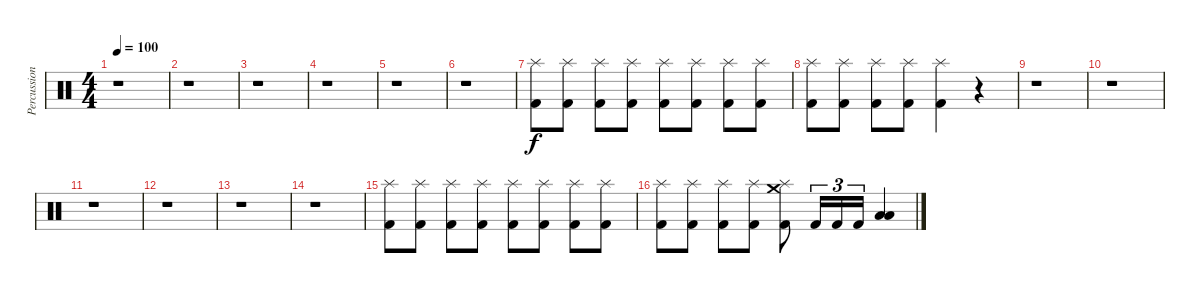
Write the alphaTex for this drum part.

\track ("Percussion" "Percussion") {instrument percussion}
\staff {score}
\articulation defaults
\ts (4 4)
\tempo 100
\clef neutral
\ks c
r.1{dy f} |
r.1 |
r.1 |
r.1 |
r.1 |
r.1 |
("Kick (hit) 2" "Splash (hit)").8 ("Kick (hit) 2" "Splash (hit)").8 ("Kick (hit) 2" "Splash (hit)").8 ("Kick (hit) 2" "Splash (hit)").8 ("Kick (hit) 2" "Splash (hit)").8 ("Kick (hit) 2" "Splash (hit)").8 ("Kick (hit) 2" "Splash (hit)").8 ("Kick (hit) 2" "Splash (hit)").8 |
("Kick (hit) 2" "Splash (hit)").8 ("Kick (hit) 2" "Splash (hit)").8 ("Kick (hit) 2" "Splash (hit)").8 ("Kick (hit) 2" "Splash (hit)").8 ("Kick (hit) 2" "Splash (hit)").4 r.4 |
r.1 |
r.1 |
r.1 |
r.1 |
r.1 |
r.1 |
("Kick (hit) 2" "Splash (hit)").8 ("Kick (hit) 2" "Splash (hit)").8 ("Kick (hit) 2" "Splash (hit)").8 ("Kick (hit) 2" "Splash (hit)").8 ("Kick (hit) 2" "Splash (hit)").8 ("Kick (hit) 2" "Splash (hit)").8 ("Kick (hit) 2" "Splash (hit)").8 ("Kick (hit) 2" "Splash (hit)").8 |
("Kick (hit) 2" "Splash (hit)").8 ("Kick (hit) 2" "Splash (hit)").8 ("Kick (hit) 2" "Splash (hit)").8 ("Kick (hit) 2" "Splash (hit)").8 ("Kick (hit) 2" "Splash (hit)" "Crash medium (hit)").8 "Kick (hit) 2".16{tu (3 2)} "Kick (hit) 2".16{tu (3 2)} "Kick (hit) 2".16{tu (3 2)} ("Low Tom (hit)" "Low Tom (hit)").4
